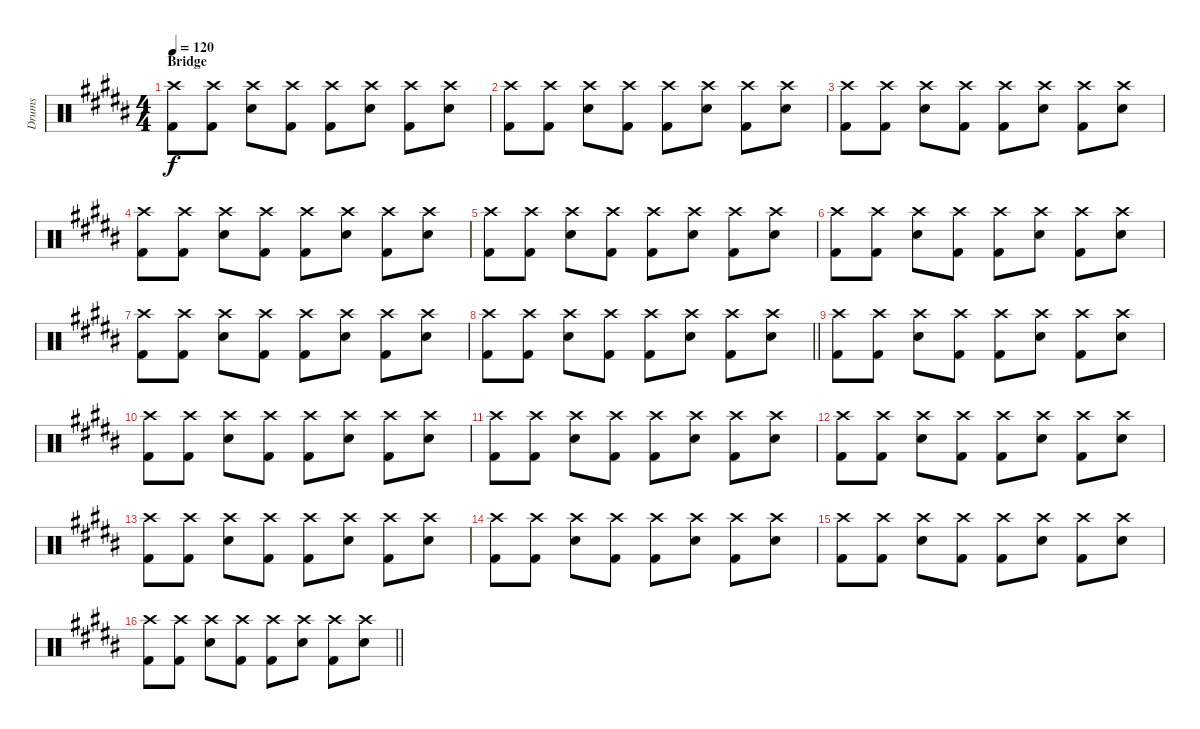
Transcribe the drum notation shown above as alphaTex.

\track ("Drums" "Drums") {instrument percussion}
\staff {score}
\articulation defaults
\ts (4 4)
\section ("" "Bridge")
\tempo 120
\clef neutral
\ks b
("Crash high (hit)" "Kick (hit) 2").8{dy f} ("Crash high (hit)" "Kick (hit) 2").8 ("Crash high (hit)" "Snare (hit) 2").8 ("Crash high (hit)" "Kick (hit) 2").8 ("Crash high (hit)" "Kick (hit) 2").8 ("Crash high (hit)" "Snare (hit) 2").8 ("Crash high (hit)" "Kick (hit) 2").8 ("Crash high (hit)" "Snare (hit) 2").8 |
("Crash high (hit)" "Kick (hit) 2").8 ("Crash high (hit)" "Kick (hit) 2").8 ("Crash high (hit)" "Snare (hit) 2").8 ("Crash high (hit)" "Kick (hit) 2").8 ("Crash high (hit)" "Kick (hit) 2").8 ("Crash high (hit)" "Snare (hit) 2").8 ("Crash high (hit)" "Kick (hit) 2").8 ("Crash high (hit)" "Snare (hit) 2").8 |
("Crash high (hit)" "Kick (hit) 2").8 ("Crash high (hit)" "Kick (hit) 2").8 ("Crash high (hit)" "Snare (hit) 2").8 ("Crash high (hit)" "Kick (hit) 2").8 ("Crash high (hit)" "Kick (hit) 2").8 ("Crash high (hit)" "Snare (hit) 2").8 ("Crash high (hit)" "Kick (hit) 2").8 ("Crash high (hit)" "Snare (hit) 2").8 |
("Crash high (hit)" "Kick (hit) 2").8 ("Crash high (hit)" "Kick (hit) 2").8 ("Crash high (hit)" "Snare (hit) 2").8 ("Crash high (hit)" "Kick (hit) 2").8 ("Crash high (hit)" "Kick (hit) 2").8 ("Crash high (hit)" "Snare (hit) 2").8 ("Crash high (hit)" "Kick (hit) 2").8 ("Crash high (hit)" "Snare (hit) 2").8 |
("Crash high (hit)" "Kick (hit) 2").8 ("Crash high (hit)" "Kick (hit) 2").8 ("Crash high (hit)" "Snare (hit) 2").8 ("Crash high (hit)" "Kick (hit) 2").8 ("Crash high (hit)" "Kick (hit) 2").8 ("Crash high (hit)" "Snare (hit) 2").8 ("Crash high (hit)" "Kick (hit) 2").8 ("Crash high (hit)" "Snare (hit) 2").8 |
("Crash high (hit)" "Kick (hit) 2").8 ("Crash high (hit)" "Kick (hit) 2").8 ("Crash high (hit)" "Snare (hit) 2").8 ("Crash high (hit)" "Kick (hit) 2").8 ("Crash high (hit)" "Kick (hit) 2").8 ("Crash high (hit)" "Snare (hit) 2").8 ("Crash high (hit)" "Kick (hit) 2").8 ("Crash high (hit)" "Snare (hit) 2").8 |
("Crash high (hit)" "Kick (hit) 2").8 ("Crash high (hit)" "Kick (hit) 2").8 ("Crash high (hit)" "Snare (hit) 2").8 ("Crash high (hit)" "Kick (hit) 2").8 ("Crash high (hit)" "Kick (hit) 2").8 ("Crash high (hit)" "Snare (hit) 2").8 ("Crash high (hit)" "Kick (hit) 2").8 ("Crash high (hit)" "Snare (hit) 2").8 |
\barLineRight lightlight
("Crash high (hit)" "Kick (hit) 2").8 ("Crash high (hit)" "Kick (hit) 2").8 ("Crash high (hit)" "Snare (hit) 2").8 ("Crash high (hit)" "Kick (hit) 2").8 ("Crash high (hit)" "Kick (hit) 2").8 ("Crash high (hit)" "Snare (hit) 2").8 ("Crash high (hit)" "Kick (hit) 2").8 ("Crash high (hit)" "Snare (hit) 2").8 |
("Crash high (hit)" "Kick (hit) 2").8 ("Crash high (hit)" "Kick (hit) 2").8 ("Crash high (hit)" "Snare (hit) 2").8 ("Crash high (hit)" "Kick (hit) 2").8 ("Crash high (hit)" "Kick (hit) 2").8 ("Crash high (hit)" "Snare (hit) 2").8 ("Crash high (hit)" "Kick (hit) 2").8 ("Crash high (hit)" "Snare (hit) 2").8 |
("Crash high (hit)" "Kick (hit) 2").8 ("Crash high (hit)" "Kick (hit) 2").8 ("Crash high (hit)" "Snare (hit) 2").8 ("Crash high (hit)" "Kick (hit) 2").8 ("Crash high (hit)" "Kick (hit) 2").8 ("Crash high (hit)" "Snare (hit) 2").8 ("Crash high (hit)" "Kick (hit) 2").8 ("Crash high (hit)" "Snare (hit) 2").8 |
("Crash high (hit)" "Kick (hit) 2").8 ("Crash high (hit)" "Kick (hit) 2").8 ("Crash high (hit)" "Snare (hit) 2").8 ("Crash high (hit)" "Kick (hit) 2").8 ("Crash high (hit)" "Kick (hit) 2").8 ("Crash high (hit)" "Snare (hit) 2").8 ("Crash high (hit)" "Kick (hit) 2").8 ("Crash high (hit)" "Snare (hit) 2").8 |
("Crash high (hit)" "Kick (hit) 2").8 ("Crash high (hit)" "Kick (hit) 2").8 ("Crash high (hit)" "Snare (hit) 2").8 ("Crash high (hit)" "Kick (hit) 2").8 ("Crash high (hit)" "Kick (hit) 2").8 ("Crash high (hit)" "Snare (hit) 2").8 ("Crash high (hit)" "Kick (hit) 2").8 ("Crash high (hit)" "Snare (hit) 2").8 |
("Crash high (hit)" "Kick (hit) 2").8 ("Crash high (hit)" "Kick (hit) 2").8 ("Crash high (hit)" "Snare (hit) 2").8 ("Crash high (hit)" "Kick (hit) 2").8 ("Crash high (hit)" "Kick (hit) 2").8 ("Crash high (hit)" "Snare (hit) 2").8 ("Crash high (hit)" "Kick (hit) 2").8 ("Crash high (hit)" "Snare (hit) 2").8 |
("Crash high (hit)" "Kick (hit) 2").8 ("Crash high (hit)" "Kick (hit) 2").8 ("Crash high (hit)" "Snare (hit) 2").8 ("Crash high (hit)" "Kick (hit) 2").8 ("Crash high (hit)" "Kick (hit) 2").8 ("Crash high (hit)" "Snare (hit) 2").8 ("Crash high (hit)" "Kick (hit) 2").8 ("Crash high (hit)" "Snare (hit) 2").8 |
("Crash high (hit)" "Kick (hit) 2").8 ("Crash high (hit)" "Kick (hit) 2").8 ("Crash high (hit)" "Snare (hit) 2").8 ("Crash high (hit)" "Kick (hit) 2").8 ("Crash high (hit)" "Kick (hit) 2").8 ("Crash high (hit)" "Snare (hit) 2").8 ("Crash high (hit)" "Kick (hit) 2").8 ("Crash high (hit)" "Snare (hit) 2").8 |
\barLineRight lightlight
("Crash high (hit)" "Kick (hit) 2").8 ("Crash high (hit)" "Kick (hit) 2").8 ("Crash high (hit)" "Snare (hit) 2").8 ("Crash high (hit)" "Kick (hit) 2").8 ("Crash high (hit)" "Kick (hit) 2").8 ("Crash high (hit)" "Snare (hit) 2").8 ("Crash high (hit)" "Kick (hit) 2").8 ("Crash high (hit)" "Snare (hit) 2").8
